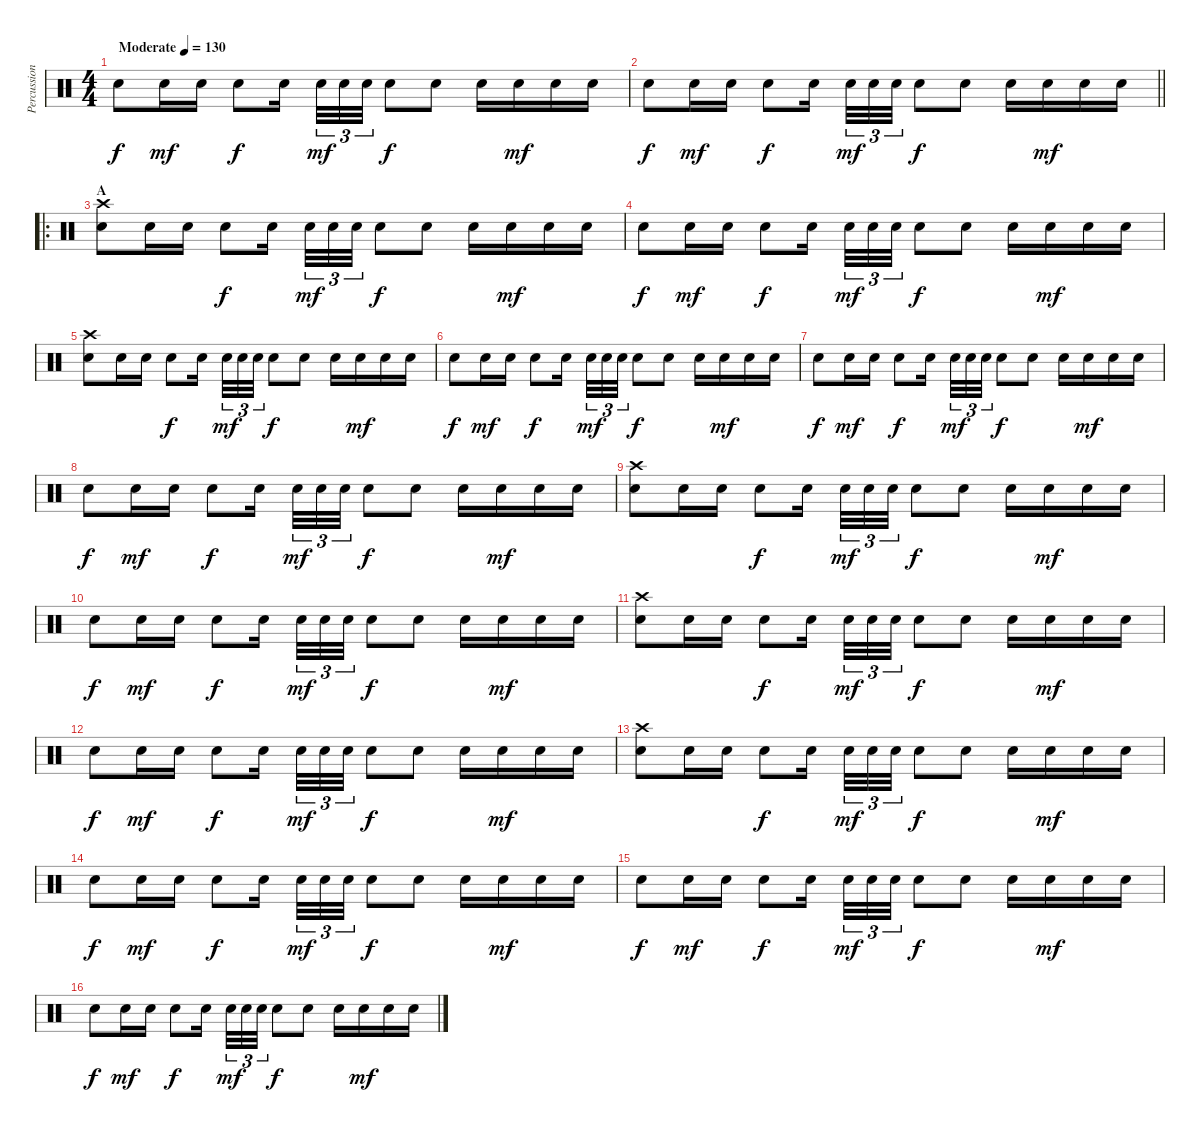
\track ("Percussion" "Percussion") {instrument percussion}
\staff {score}
\articulation defaults
\ts (4 4)
\tempo (130 "Moderate")
\clef neutral
\ks c "Electric Snare (hit)".8{dy f} "Electric Snare (hit)".16{dy mf} "Electric Snare (hit)".16 "Electric Snare (hit)".8{dy f} "Electric Snare (hit)".16{beam splitsecondary} "Electric Snare (hit)".32{tu (3 2) dy mf} "Electric Snare (hit)".32{tu (3 2)} "Electric Snare (hit)".32{tu (3 2)} "Electric Snare (hit)".8{dy f} "Electric Snare (hit)".8 "Electric Snare (hit)".16 "Electric Snare (hit)".16{dy mf} "Electric Snare (hit)".16 "Electric Snare (hit)".16
|
\barLineRight lightlight "Electric Snare (hit)".8{dy f} "Electric Snare (hit)".16{dy mf} "Electric Snare (hit)".16 "Electric Snare (hit)".8{dy f} "Electric Snare (hit)".16{beam splitsecondary} "Electric Snare (hit)".32{tu (3 2) dy mf} "Electric Snare (hit)".32{tu (3 2)} "Electric Snare (hit)".32{tu (3 2)} "Electric Snare (hit)".8{dy f} "Electric Snare (hit)".8 "Electric Snare (hit)".16 "Electric Snare (hit)".16{dy mf} "Electric Snare (hit)".16 "Electric Snare (hit)".16
|
\ro
\section ("" "A")
("Crash high (hit)" "Electric Snare (hit)").8 "Electric Snare (hit)".16 "Electric Snare (hit)".16 "Electric Snare (hit)".8{dy f} "Electric Snare (hit)".16{beam splitsecondary} "Electric Snare (hit)".32{tu (3 2) dy mf} "Electric Snare (hit)".32{tu (3 2)} "Electric Snare (hit)".32{tu (3 2)} "Electric Snare (hit)".8{dy f} "Electric Snare (hit)".8 "Electric Snare (hit)".16 "Electric Snare (hit)".16{dy mf} "Electric Snare (hit)".16 "Electric Snare (hit)".16 |
"Electric Snare (hit)".8{dy f} "Electric Snare (hit)".16{dy mf} "Electric Snare (hit)".16 "Electric Snare (hit)".8{dy f} "Electric Snare (hit)".16{beam splitsecondary} "Electric Snare (hit)".32{tu (3 2) dy mf} "Electric Snare (hit)".32{tu (3 2)} "Electric Snare (hit)".32{tu (3 2)} "Electric Snare (hit)".8{dy f} "Electric Snare (hit)".8 "Electric Snare (hit)".16 "Electric Snare (hit)".16{dy mf} "Electric Snare (hit)".16 "Electric Snare (hit)".16 |
("Crash high (hit)" "Electric Snare (hit)").8 "Electric Snare (hit)".16 "Electric Snare (hit)".16 "Electric Snare (hit)".8{dy f} "Electric Snare (hit)".16{beam splitsecondary} "Electric Snare (hit)".32{tu (3 2) dy mf} "Electric Snare (hit)".32{tu (3 2)} "Electric Snare (hit)".32{tu (3 2)} "Electric Snare (hit)".8{dy f} "Electric Snare (hit)".8 "Electric Snare (hit)".16 "Electric Snare (hit)".16{dy mf} "Electric Snare (hit)".16 "Electric Snare (hit)".16 |
"Electric Snare (hit)".8{dy f} "Electric Snare (hit)".16{dy mf} "Electric Snare (hit)".16 "Electric Snare (hit)".8{dy f} "Electric Snare (hit)".16{beam splitsecondary} "Electric Snare (hit)".32{tu (3 2) dy mf} "Electric Snare (hit)".32{tu (3 2)} "Electric Snare (hit)".32{tu (3 2)} "Electric Snare (hit)".8{dy f} "Electric Snare (hit)".8 "Electric Snare (hit)".16 "Electric Snare (hit)".16{dy mf} "Electric Snare (hit)".16 "Electric Snare (hit)".16 |
"Electric Snare (hit)".8{dy f} "Electric Snare (hit)".16{dy mf} "Electric Snare (hit)".16 "Electric Snare (hit)".8{dy f} "Electric Snare (hit)".16{beam splitsecondary} "Electric Snare (hit)".32{tu (3 2) dy mf} "Electric Snare (hit)".32{tu (3 2)} "Electric Snare (hit)".32{tu (3 2)} "Electric Snare (hit)".8{dy f} "Electric Snare (hit)".8 "Electric Snare (hit)".16 "Electric Snare (hit)".16{dy mf} "Electric Snare (hit)".16 "Electric Snare (hit)".16 |
"Electric Snare (hit)".8{dy f} "Electric Snare (hit)".16{dy mf} "Electric Snare (hit)".16 "Electric Snare (hit)".8{dy f} "Electric Snare (hit)".16{beam splitsecondary} "Electric Snare (hit)".32{tu (3 2) dy mf} "Electric Snare (hit)".32{tu (3 2)} "Electric Snare (hit)".32{tu (3 2)} "Electric Snare (hit)".8{dy f} "Electric Snare (hit)".8 "Electric Snare (hit)".16 "Electric Snare (hit)".16{dy mf} "Electric Snare (hit)".16 "Electric Snare (hit)".16 |
("Crash high (hit)" "Electric Snare (hit)").8 "Electric Snare (hit)".16 "Electric Snare (hit)".16 "Electric Snare (hit)".8{dy f} "Electric Snare (hit)".16{beam splitsecondary} "Electric Snare (hit)".32{tu (3 2) dy mf} "Electric Snare (hit)".32{tu (3 2)} "Electric Snare (hit)".32{tu (3 2)} "Electric Snare (hit)".8{dy f} "Electric Snare (hit)".8 "Electric Snare (hit)".16 "Electric Snare (hit)".16{dy mf} "Electric Snare (hit)".16 "Electric Snare (hit)".16 |
"Electric Snare (hit)".8{dy f} "Electric Snare (hit)".16{dy mf} "Electric Snare (hit)".16 "Electric Snare (hit)".8{dy f} "Electric Snare (hit)".16{beam splitsecondary} "Electric Snare (hit)".32{tu (3 2) dy mf} "Electric Snare (hit)".32{tu (3 2)} "Electric Snare (hit)".32{tu (3 2)} "Electric Snare (hit)".8{dy f} "Electric Snare (hit)".8 "Electric Snare (hit)".16 "Electric Snare (hit)".16{dy mf} "Electric Snare (hit)".16 "Electric Snare (hit)".16 |
("Crash high (hit)" "Electric Snare (hit)").8 "Electric Snare (hit)".16 "Electric Snare (hit)".16 "Electric Snare (hit)".8{dy f} "Electric Snare (hit)".16{beam splitsecondary} "Electric Snare (hit)".32{tu (3 2) dy mf} "Electric Snare (hit)".32{tu (3 2)} "Electric Snare (hit)".32{tu (3 2)} "Electric Snare (hit)".8{dy f} "Electric Snare (hit)".8 "Electric Snare (hit)".16 "Electric Snare (hit)".16{dy mf} "Electric Snare (hit)".16 "Electric Snare (hit)".16 |
"Electric Snare (hit)".8{dy f} "Electric Snare (hit)".16{dy mf} "Electric Snare (hit)".16 "Electric Snare (hit)".8{dy f} "Electric Snare (hit)".16{beam splitsecondary} "Electric Snare (hit)".32{tu (3 2) dy mf} "Electric Snare (hit)".32{tu (3 2)} "Electric Snare (hit)".32{tu (3 2)} "Electric Snare (hit)".8{dy f} "Electric Snare (hit)".8 "Electric Snare (hit)".16 "Electric Snare (hit)".16{dy mf} "Electric Snare (hit)".16 "Electric Snare (hit)".16 |
("Crash high (hit)" "Electric Snare (hit)").8 "Electric Snare (hit)".16 "Electric Snare (hit)".16 "Electric Snare (hit)".8{dy f} "Electric Snare (hit)".16{beam splitsecondary} "Electric Snare (hit)".32{tu (3 2) dy mf} "Electric Snare (hit)".32{tu (3 2)} "Electric Snare (hit)".32{tu (3 2)} "Electric Snare (hit)".8{dy f} "Electric Snare (hit)".8 "Electric Snare (hit)".16 "Electric Snare (hit)".16{dy mf} "Electric Snare (hit)".16 "Electric Snare (hit)".16 |
"Electric Snare (hit)".8{dy f} "Electric Snare (hit)".16{dy mf} "Electric Snare (hit)".16 "Electric Snare (hit)".8{dy f} "Electric Snare (hit)".16{beam splitsecondary} "Electric Snare (hit)".32{tu (3 2) dy mf} "Electric Snare (hit)".32{tu (3 2)} "Electric Snare (hit)".32{tu (3 2)} "Electric Snare (hit)".8{dy f} "Electric Snare (hit)".8 "Electric Snare (hit)".16 "Electric Snare (hit)".16{dy mf} "Electric Snare (hit)".16 "Electric Snare (hit)".16 |
"Electric Snare (hit)".8{dy f} "Electric Snare (hit)".16{dy mf} "Electric Snare (hit)".16 "Electric Snare (hit)".8{dy f} "Electric Snare (hit)".16{beam splitsecondary} "Electric Snare (hit)".32{tu (3 2) dy mf} "Electric Snare (hit)".32{tu (3 2)} "Electric Snare (hit)".32{tu (3 2)} "Electric Snare (hit)".8{dy f} "Electric Snare (hit)".8 "Electric Snare (hit)".16 "Electric Snare (hit)".16{dy mf} "Electric Snare (hit)".16 "Electric Snare (hit)".16 |
"Electric Snare (hit)".8{dy f} "Electric Snare (hit)".16{dy mf} "Electric Snare (hit)".16 "Electric Snare (hit)".8{dy f} "Electric Snare (hit)".16{beam splitsecondary} "Electric Snare (hit)".32{tu (3 2) dy mf} "Electric Snare (hit)".32{tu (3 2)} "Electric Snare (hit)".32{tu (3 2)} "Electric Snare (hit)".8{dy f} "Electric Snare (hit)".8 "Electric Snare (hit)".16 "Electric Snare (hit)".16{dy mf} "Electric Snare (hit)".16 "Electric Snare (hit)".16
